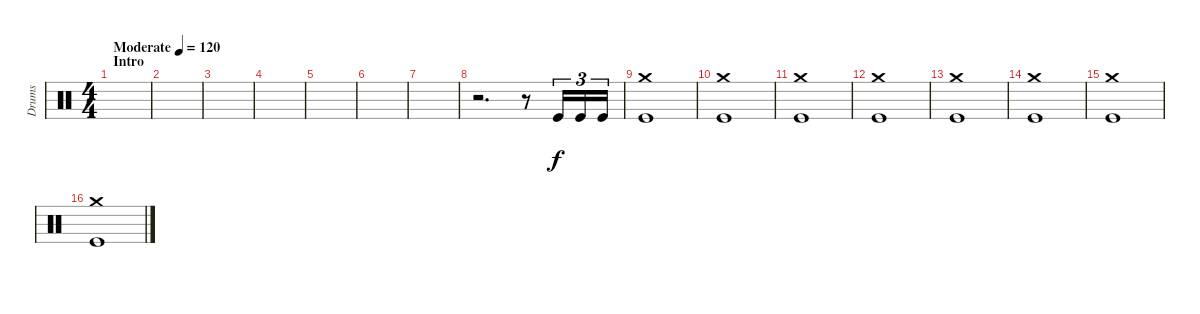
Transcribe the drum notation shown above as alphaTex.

\track ("Drums" "Drums") {instrument percussion}
\staff {score}
\articulation defaults
\ts (4 4)
\section ("" "Intro")
\tempo (120 "Moderate")
\clef neutral
\ks c
|
|
|
|
|
|
|
r.2{d} r.8 "Kick (hit)".16{tu (3 2)} "Kick (hit)".16{tu (3 2)} "Kick (hit)".16{tu (3 2)} |
("Crash medium (hit)" "Kick (hit)").1 |
("Crash medium (hit)" "Kick (hit)").1 |
("Crash medium (hit)" "Kick (hit)").1 |
("Crash medium (hit)" "Kick (hit)").1 |
("Crash medium (hit)" "Kick (hit)").1 |
("Crash medium (hit)" "Kick (hit)").1 |
("Crash medium (hit)" "Kick (hit)").1 |
("Crash medium (hit)" "Kick (hit)").1
